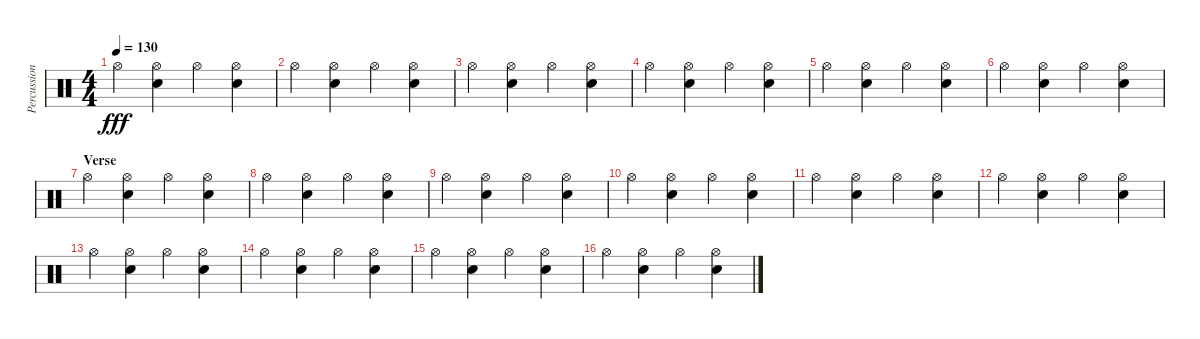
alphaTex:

\track ("Percussion" "Percussion") {instrument percussion}
\staff {score}
\articulation defaults
\ts (4 4)
\tempo 130
\clef neutral
\ks c "Hi-Hat (open)".4{dy fff}
("Hi-Hat (open)" "Snare (hit) 2").4 "Hi-Hat (open)".4 ("Hi-Hat (open)" "Snare (hit) 2").4 |
"Hi-Hat (open)".4 ("Hi-Hat (open)" "Snare (hit) 2").4 "Hi-Hat (open)".4 ("Hi-Hat (open)" "Snare (hit) 2").4 |
"Hi-Hat (open)".4 ("Hi-Hat (open)" "Snare (hit) 2").4 "Hi-Hat (open)".4 ("Hi-Hat (open)" "Snare (hit) 2").4 |
"Hi-Hat (open)".4 ("Hi-Hat (open)" "Snare (hit) 2").4 "Hi-Hat (open)".4 ("Hi-Hat (open)" "Snare (hit) 2").4 |
"Hi-Hat (open)".4 ("Hi-Hat (open)" "Snare (hit) 2").4 "Hi-Hat (open)".4 ("Hi-Hat (open)" "Snare (hit) 2").4 |
"Hi-Hat (open)".4 ("Hi-Hat (open)" "Snare (hit) 2").4 "Hi-Hat (open)".4 ("Hi-Hat (open)" "Snare (hit) 2").4 |
\section ("" "Verse")
"Hi-Hat (open)".4 ("Hi-Hat (open)" "Snare (hit) 2").4 "Hi-Hat (open)".4 ("Hi-Hat (open)" "Snare (hit) 2").4 |
"Hi-Hat (open)".4 ("Hi-Hat (open)" "Snare (hit) 2").4 "Hi-Hat (open)".4 ("Hi-Hat (open)" "Snare (hit) 2").4 |
"Hi-Hat (open)".4 ("Hi-Hat (open)" "Snare (hit) 2").4 "Hi-Hat (open)".4 ("Hi-Hat (open)" "Snare (hit) 2").4 |
"Hi-Hat (open)".4 ("Hi-Hat (open)" "Snare (hit) 2").4 "Hi-Hat (open)".4 ("Hi-Hat (open)" "Snare (hit) 2").4 |
"Hi-Hat (open)".4 ("Hi-Hat (open)" "Snare (hit) 2").4 "Hi-Hat (open)".4 ("Hi-Hat (open)" "Snare (hit) 2").4 |
"Hi-Hat (open)".4 ("Hi-Hat (open)" "Snare (hit) 2").4 "Hi-Hat (open)".4 ("Hi-Hat (open)" "Snare (hit) 2").4 |
"Hi-Hat (open)".4 ("Hi-Hat (open)" "Snare (hit) 2").4 "Hi-Hat (open)".4 ("Hi-Hat (open)" "Snare (hit) 2").4 |
"Hi-Hat (open)".4 ("Hi-Hat (open)" "Snare (hit) 2").4 "Hi-Hat (open)".4 ("Hi-Hat (open)" "Snare (hit) 2").4 |
"Hi-Hat (open)".4 ("Hi-Hat (open)" "Snare (hit) 2").4 "Hi-Hat (open)".4 ("Hi-Hat (open)" "Snare (hit) 2").4 |
"Hi-Hat (open)".4 ("Hi-Hat (open)" "Snare (hit) 2").4 "Hi-Hat (open)".4 ("Hi-Hat (open)" "Snare (hit) 2").4
